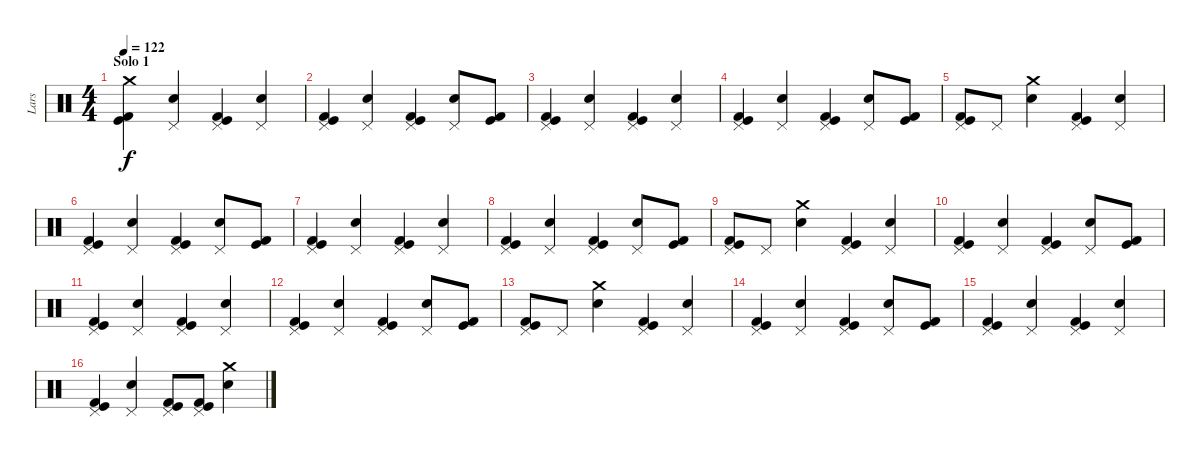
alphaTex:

\track ("Lars" "Lars") {instrument percussion}
\staff {score}
\articulation defaults
\ts (4 4)
\section ("" "Solo 1")
\tempo 122
\clef neutral
\ks c
("Crash medium (hit)" "Kick (hit)" "Kick (hit) 2").4{dy f} ("Pedal Hi-Hat (hit)" "Electric Snare (hit)").4 ("Pedal Hi-Hat (hit)" "Kick (hit)" "Kick (hit) 2").4 ("Pedal Hi-Hat (hit)" "Electric Snare (hit)").4 |
("Pedal Hi-Hat (hit)" "Kick (hit)" "Kick (hit) 2").4 ("Pedal Hi-Hat (hit)" "Electric Snare (hit)").4 ("Pedal Hi-Hat (hit)" "Kick (hit)" "Kick (hit) 2").4 ("Pedal Hi-Hat (hit)" "Electric Snare (hit)").8 ("Kick (hit)" "Kick (hit) 2").8 |
("Pedal Hi-Hat (hit)" "Kick (hit)" "Kick (hit) 2").4 ("Pedal Hi-Hat (hit)" "Electric Snare (hit)").4 ("Pedal Hi-Hat (hit)" "Kick (hit)" "Kick (hit) 2").4 ("Pedal Hi-Hat (hit)" "Electric Snare (hit)").4 |
("Pedal Hi-Hat (hit)" "Kick (hit)" "Kick (hit) 2").4 ("Pedal Hi-Hat (hit)" "Electric Snare (hit)").4 ("Pedal Hi-Hat (hit)" "Kick (hit)" "Kick (hit) 2").4 ("Pedal Hi-Hat (hit)" "Electric Snare (hit)").8 ("Kick (hit)" "Kick (hit) 2").8 |
("Pedal Hi-Hat (hit)" "Kick (hit)" "Kick (hit) 2").8 "Pedal Hi-Hat (hit)".8 ("Crash medium (hit)" "Electric Snare (hit)").4 ("Pedal Hi-Hat (hit)" "Kick (hit)" "Kick (hit) 2").4 ("Pedal Hi-Hat (hit)" "Electric Snare (hit)").4 |
("Pedal Hi-Hat (hit)" "Kick (hit)" "Kick (hit) 2").4 ("Pedal Hi-Hat (hit)" "Electric Snare (hit)").4 ("Pedal Hi-Hat (hit)" "Kick (hit)" "Kick (hit) 2").4 ("Pedal Hi-Hat (hit)" "Electric Snare (hit)").8 ("Kick (hit)" "Kick (hit) 2").8 |
("Pedal Hi-Hat (hit)" "Kick (hit)" "Kick (hit) 2").4 ("Pedal Hi-Hat (hit)" "Electric Snare (hit)").4 ("Pedal Hi-Hat (hit)" "Kick (hit)" "Kick (hit) 2").4 ("Pedal Hi-Hat (hit)" "Electric Snare (hit)").4 |
("Pedal Hi-Hat (hit)" "Kick (hit)" "Kick (hit) 2").4 ("Pedal Hi-Hat (hit)" "Electric Snare (hit)").4 ("Pedal Hi-Hat (hit)" "Kick (hit)" "Kick (hit) 2").4 ("Pedal Hi-Hat (hit)" "Electric Snare (hit)").8 ("Kick (hit)" "Kick (hit) 2").8 |
("Pedal Hi-Hat (hit)" "Kick (hit)" "Kick (hit) 2").8 "Pedal Hi-Hat (hit)".8 ("Crash medium (hit)" "Electric Snare (hit)").4 ("Pedal Hi-Hat (hit)" "Kick (hit)" "Kick (hit) 2").4 ("Pedal Hi-Hat (hit)" "Electric Snare (hit)").4 |
("Pedal Hi-Hat (hit)" "Kick (hit)" "Kick (hit) 2").4 ("Pedal Hi-Hat (hit)" "Electric Snare (hit)").4 ("Pedal Hi-Hat (hit)" "Kick (hit)" "Kick (hit) 2").4 ("Pedal Hi-Hat (hit)" "Electric Snare (hit)").8 ("Kick (hit)" "Kick (hit) 2").8 |
("Pedal Hi-Hat (hit)" "Kick (hit)" "Kick (hit) 2").4 ("Pedal Hi-Hat (hit)" "Electric Snare (hit)").4 ("Pedal Hi-Hat (hit)" "Kick (hit)" "Kick (hit) 2").4 ("Pedal Hi-Hat (hit)" "Electric Snare (hit)").4 |
("Pedal Hi-Hat (hit)" "Kick (hit)" "Kick (hit) 2").4 ("Pedal Hi-Hat (hit)" "Electric Snare (hit)").4 ("Pedal Hi-Hat (hit)" "Kick (hit)" "Kick (hit) 2").4 ("Pedal Hi-Hat (hit)" "Electric Snare (hit)").8 ("Kick (hit)" "Kick (hit) 2").8 |
("Pedal Hi-Hat (hit)" "Kick (hit)" "Kick (hit) 2").8 "Pedal Hi-Hat (hit)".8 ("Crash medium (hit)" "Electric Snare (hit)").4 ("Pedal Hi-Hat (hit)" "Kick (hit)" "Kick (hit) 2").4 ("Pedal Hi-Hat (hit)" "Electric Snare (hit)").4 |
("Pedal Hi-Hat (hit)" "Kick (hit)" "Kick (hit) 2").4 ("Pedal Hi-Hat (hit)" "Electric Snare (hit)").4 ("Pedal Hi-Hat (hit)" "Kick (hit)" "Kick (hit) 2").4 ("Pedal Hi-Hat (hit)" "Electric Snare (hit)").8 ("Kick (hit)" "Kick (hit) 2").8 |
("Pedal Hi-Hat (hit)" "Kick (hit)" "Kick (hit) 2").4 ("Pedal Hi-Hat (hit)" "Electric Snare (hit)").4 ("Pedal Hi-Hat (hit)" "Kick (hit)" "Kick (hit) 2").4 ("Pedal Hi-Hat (hit)" "Electric Snare (hit)").4 |
("Pedal Hi-Hat (hit)" "Kick (hit)" "Kick (hit) 2").4 ("Pedal Hi-Hat (hit)" "Electric Snare (hit)").4 ("Pedal Hi-Hat (hit)" "Kick (hit)" "Kick (hit) 2").8 ("Pedal Hi-Hat (hit)" "Kick (hit)" "Kick (hit) 2").8 ("Crash medium (hit)" "Electric Snare (hit)").4
